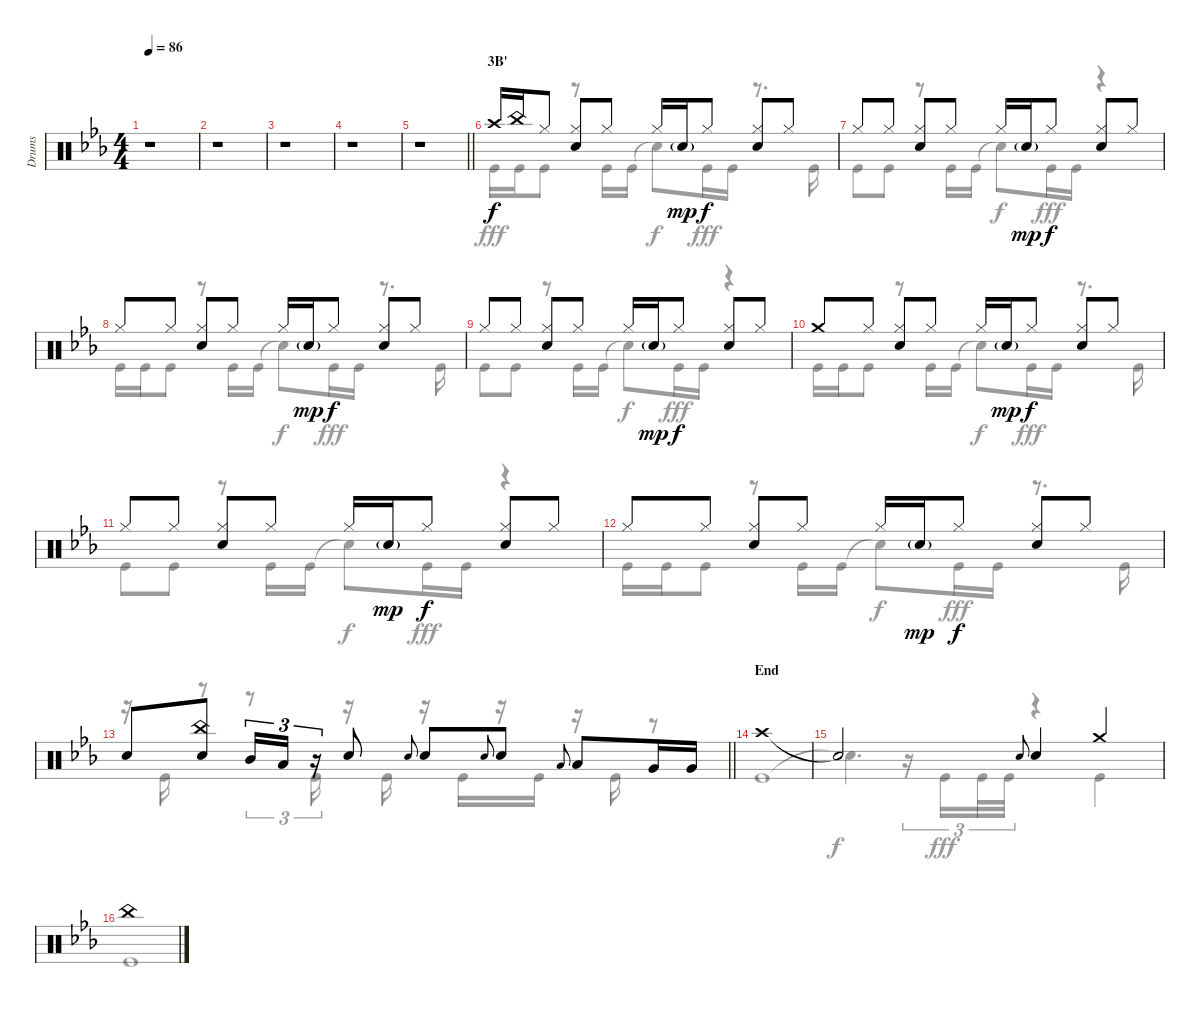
\track ("Drums" "Drums") {instrument percussion}
\staff {score}
\articulation defaults
\voice
\ts (4 4)
\tempo 86
\clef neutral
\ks eb
r.1{dy f} |
r.1 |
r.1 |
r.1 |
\barLineRight lightlight
r.1 |
\section ("" "3B'")
"Crash high (hit)".16 "China (hit)".16 "Hi-Hat (closed)".8 ("Hi-Hat (closed)" "Snare (hit) 2").8 "Hi-Hat (closed)".8 "Hi-Hat (closed)".16 "Snare (hit) 2"{g}.16{dy mp} "Hi-Hat (closed)".8{dy f} ("Hi-Hat (closed)" "Snare (hit) 2").8 "Hi-Hat (closed)".8 |
"Hi-Hat (closed)".8 "Hi-Hat (closed)".8 ("Hi-Hat (closed)" "Snare (hit) 2").8 "Hi-Hat (closed)".8 "Hi-Hat (closed)".16 "Snare (hit) 2"{g}.16{dy mp} "Hi-Hat (closed)".8{dy f} ("Hi-Hat (closed)" "Snare (hit) 2").8 "Hi-Hat (closed)".8 |
"Hi-Hat (closed)".8 "Hi-Hat (closed)".8 ("Hi-Hat (closed)" "Snare (hit) 2").8 "Hi-Hat (closed)".8 "Hi-Hat (closed)".16 "Snare (hit) 2"{g}.16{dy mp} "Hi-Hat (closed)".8{dy f} ("Hi-Hat (closed)" "Snare (hit) 2").8 "Hi-Hat (closed)".8 |
"Hi-Hat (closed)".8 "Hi-Hat (closed)".8 ("Hi-Hat (closed)" "Snare (hit) 2").8 "Hi-Hat (closed)".8 "Hi-Hat (closed)".16 "Snare (hit) 2"{g}.16{dy mp} "Hi-Hat (closed)".8{dy f} ("Hi-Hat (closed)" "Snare (hit) 2").8 "Hi-Hat (closed)".8 |
"Crash medium (hit)".8 "Hi-Hat (closed)".8 ("Hi-Hat (closed)" "Snare (hit) 2").8 "Hi-Hat (closed)".8 "Hi-Hat (closed)".16 "Snare (hit) 2"{g}.16{dy mp} "Hi-Hat (closed)".8{dy f} ("Hi-Hat (closed)" "Snare (hit) 2").8 "Hi-Hat (closed)".8 |
"Hi-Hat (closed)".8 "Hi-Hat (closed)".8 ("Hi-Hat (closed)" "Snare (hit) 2").8 "Hi-Hat (closed)".8 "Hi-Hat (closed)".16 "Snare (hit) 2"{g}.16{dy mp} "Hi-Hat (closed)".8{dy f} ("Hi-Hat (closed)" "Snare (hit) 2").8 "Hi-Hat (closed)".8 |
"Hi-Hat (closed)".8 "Hi-Hat (closed)".8 ("Hi-Hat (closed)" "Snare (hit) 2").8 "Hi-Hat (closed)".8 "Hi-Hat (closed)".16 "Snare (hit) 2"{g}.16{dy mp} "Hi-Hat (closed)".8{dy f} ("Hi-Hat (closed)" "Snare (hit) 2").8 "Hi-Hat (closed)".8 |
\barLineRight lightlight "Snare (hit) 2".8
("China (hit)" "Snare (hit) 2").8 "Mid Tom (hit)".16{tu (3 2)} "Low Tom (hit)".16{tu (3 2)} r.16{tu (3 2)} "Snare (hit) 2".8 "Snare (hit) 2".8{gr onbeat} "Snare (hit) 2".8 "Snare (hit) 2".8{gr onbeat} "Snare (hit) 2".8 "Low Tom (hit)".8{gr onbeat} "Low Tom (hit)".8 "Very Low Tom (hit)".16 "Very Low Tom (hit)".16 |
\section ("" "End")
"Crash high (hit)".1 |
"Snare (hit)"{t}.2 "Snare (hit) 2".8{gr onbeat} "Snare (hit) 2".4 "Crash medium (hit)".4 |
"China (hit)".1
\voice
\clef neutral
\ottava regular
\simile none
\ks eb
r.1{dy fff} |
r.1 |
r.1 |
r.1 |
\barLineRight lightlight
r.1 |
"Kick (hit)".16 "Kick (hit)".16 "Kick (hit)".8 r.8 "Kick (hit)".16 "Kick (hit)".16 "Snare (hit)"{t}.8{dy f} "Kick (hit)".16{dy fff} "Kick (hit)".16 r.8{d} "Kick (hit)".16 |
"Kick (hit)".8 "Kick (hit)".8 r.8 "Kick (hit)".16 "Kick (hit)".16 "Snare (hit)"{t}.8{dy f} "Kick (hit)".16{dy fff} "Kick (hit)".16 r.4 |
"Kick (hit)".16 "Kick (hit)".16 "Kick (hit)".8 r.8 "Kick (hit)".16 "Kick (hit)".16 "Snare (hit)"{t}.8{dy f} "Kick (hit)".16{dy fff} "Kick (hit)".16 r.8{d} "Kick (hit)".16 |
"Kick (hit)".8 "Kick (hit)".8 r.8 "Kick (hit)".16 "Kick (hit)".16 "Snare (hit)"{t}.8{dy f} "Kick (hit)".16{dy fff} "Kick (hit)".16 r.4 |
"Kick (hit)".16 "Kick (hit)".16 "Kick (hit)".8 r.8 "Kick (hit)".16 "Kick (hit)".16 "Snare (hit)"{t}.8{dy f} "Kick (hit)".16{dy fff} "Kick (hit)".16 r.8{d} "Kick (hit)".16 |
"Kick (hit)".8 "Kick (hit)".8 r.8 "Kick (hit)".16 "Kick (hit)".16 "Snare (hit)"{t}.8{dy f} "Kick (hit)".16{dy fff} "Kick (hit)".16 r.4 |
"Kick (hit)".16 "Kick (hit)".16 "Kick (hit)".8 r.8 "Kick (hit)".16 "Kick (hit)".16 "Snare (hit)"{t}.8{dy f} "Kick (hit)".16{dy fff} "Kick (hit)".16 r.8{d} "Kick (hit)".16 |
\barLineRight lightlight
r.16 "Kick (hit)".16 r.8 r.8{tu (3 2)} "Kick (hit)".16{tu (3 2)} r.16 "Kick (hit)".16 r.16 "Kick (hit)".16 r.16 "Kick (hit)".16 r.16 "Kick (hit)".16 r.8 |
"Kick (hit)".1 |
"Snare (hit)"{t}.4{d dy f} r.16{tu (3 2)} "Kick (hit)".16{tu (3 2) dy fff} "Kick (hit)".32{tu (3 2)} "Kick (hit)".32{tu (3 2)} r.4 "Kick (hit)".4 |
"Kick (hit)".1
